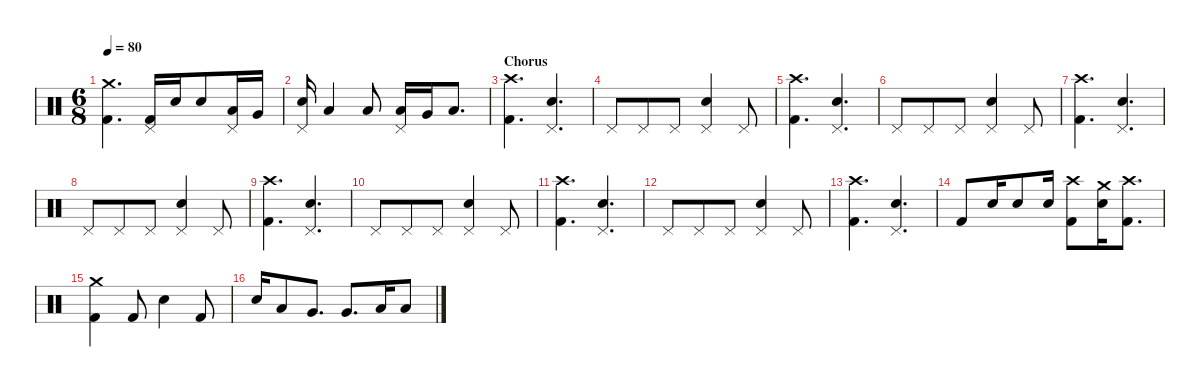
\defaultSystemsLayout 4
\hideDynamics
\bracketExtendMode nobrackets
\singleTrackTrackNamePolicy hidden
\multiTrackTrackNamePolicy hidden
\firstSystemTrackNameMode fullname
\firstSystemTrackNameOrientation horizontal
\otherSystemsTrackNameOrientation horizontal
\track ("Martin Lopez" "drm.") {instrument percussion}
\staff {score}
\articulation defaults
\ts (6 8)
\tempo 80
\clef neutral
\ks c
("Crash medium (hit)" "Kick (hit) 2").4{d dy f beam Down} ("Pedal Hi-Hat (hit)" "Kick (hit) 2").16{beam Up} "Snare (hit) 2".16{dy fff beam Up} "Snare (hit) 2".8{beam Up} ("Pedal Hi-Hat (hit)" "Low Tom (hit)").16{dy f beam Up} "Very Low Tom (hit)".16{dy fff beam Up} |
("Pedal Hi-Hat (hit)" "Snare (hit) 2").16{dy f beam Up} "Low Tom (hit)".4{dy fff beam Up} "Low Tom (hit)".8{beam Up} ("Pedal Hi-Hat (hit)" "Low Tom (hit)").16{dy f beam Up} "Very Low Tom (hit)".16{dy fff beam Up} "Low Floor Tom (hit)".8{d beam Up} |
\section ("" "Chorus")
("Crash high (hit)" "Kick (hit) 2").4{d dy f beam Down} ("Pedal Hi-Hat (hit)" "Snare (hit) 2").4{d dy ff beam Up} |
"Pedal Hi-Hat (hit)".8{dy f beam Up} "Pedal Hi-Hat (hit)".8{beam Up} "Pedal Hi-Hat (hit)".8{beam Up} ("Pedal Hi-Hat (hit)" "Snare (hit) 2").4{dy ff beam Up} "Pedal Hi-Hat (hit)".8{dy f beam Up} |
("Crash high (hit)" "Kick (hit) 2").4{d beam Down} ("Pedal Hi-Hat (hit)" "Snare (hit) 2").4{d dy ff beam Up} |
"Pedal Hi-Hat (hit)".8{dy f beam Up} "Pedal Hi-Hat (hit)".8{beam Up} "Pedal Hi-Hat (hit)".8{beam Up} ("Pedal Hi-Hat (hit)" "Snare (hit) 2").4{dy ff beam Up} "Pedal Hi-Hat (hit)".8{dy f beam Up} |
("Crash high (hit)" "Kick (hit) 2").4{d beam Down} ("Pedal Hi-Hat (hit)" "Snare (hit) 2").4{d dy ff beam Up} |
"Pedal Hi-Hat (hit)".8{dy f beam Up} "Pedal Hi-Hat (hit)".8{beam Up} "Pedal Hi-Hat (hit)".8{beam Up} ("Pedal Hi-Hat (hit)" "Snare (hit) 2").4{dy ff beam Up} "Pedal Hi-Hat (hit)".8{dy f beam Up} |
("Crash high (hit)" "Kick (hit) 2").4{d beam Down} ("Pedal Hi-Hat (hit)" "Snare (hit) 2").4{d dy ff beam Up} |
"Pedal Hi-Hat (hit)".8{dy f beam Up} "Pedal Hi-Hat (hit)".8{beam Up} "Pedal Hi-Hat (hit)".8{beam Up} ("Pedal Hi-Hat (hit)" "Snare (hit) 2").4{dy ff beam Up} "Pedal Hi-Hat (hit)".8{dy f beam Up} |
("Crash high (hit)" "Kick (hit) 2").4{d beam Down} ("Pedal Hi-Hat (hit)" "Snare (hit) 2").4{d dy ff beam Up} |
"Pedal Hi-Hat (hit)".8{dy f beam Up} "Pedal Hi-Hat (hit)".8{beam Up} "Pedal Hi-Hat (hit)".8{beam Up} ("Pedal Hi-Hat (hit)" "Snare (hit) 2").4{dy ff beam Up} "Pedal Hi-Hat (hit)".8{dy f beam Up} |
("Crash high (hit)" "Kick (hit) 2").4{d beam Down} ("Pedal Hi-Hat (hit)" "Snare (hit) 2").4{d dy ff beam Up} |
"Kick (hit) 2".8{dy fff beam Up} "Snare (hit) 2".16{beam Up} "Snare (hit) 2".8{beam Up} "Snare (hit) 2".16{beam Up} ("Crash high (hit)" "Kick (hit) 2").8{dy ff beam Down} ("Crash medium (hit)" "Snare (hit) 2").16{beam Down} ("Crash high (hit)" "Kick (hit) 2").8{d dy fff beam Down} |
("Crash medium (hit)" "Kick (hit) 2").4{dy ff beam Down} "Kick (hit) 2".8{dy f beam Up} "Snare (hit) 2".4{beam Down} "Kick (hit) 2".8{beam Up} |
"Snare (hit) 2".16{dy fff beam Up} "Low Tom (hit)".8{beam Up} "Very Low Tom (hit)".8{d beam Up} "Very Low Tom (hit)".8{d beam Up} "Low Floor Tom (hit)".16{beam Up} "Low Floor Tom (hit)".8{beam Up}
